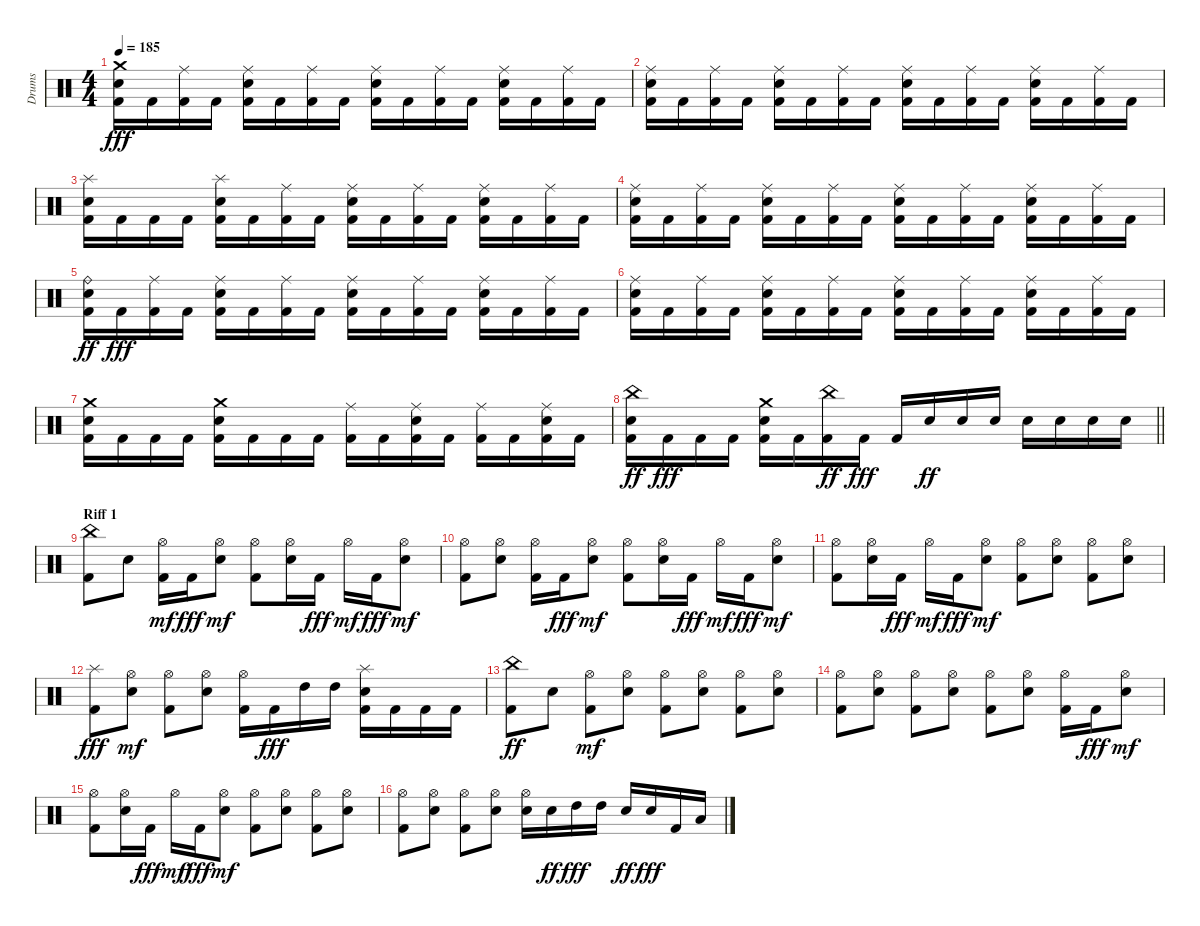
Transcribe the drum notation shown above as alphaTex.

\track ("Drums" "Drums") {instrument percussion}
\staff {score}
\articulation defaults
\ts (4 4)
\tempo 185
\clef neutral
\ks c
("Kick (hit) 2" "Snare (hit) 2" "Crash medium (hit)").16{dy fff} "Kick (hit) 2".16 ("Kick (hit) 2" "Ride (middle)").16 "Kick (hit) 2".16 ("Kick (hit) 2" "Snare (hit) 2" "Ride (middle)").16 "Kick (hit) 2".16 ("Kick (hit) 2" "Ride (middle)").16 "Kick (hit) 2".16 ("Kick (hit) 2" "Snare (hit) 2" "Ride (middle)").16 "Kick (hit) 2".16 ("Kick (hit) 2" "Ride (middle)").16 "Kick (hit) 2".16 ("Kick (hit) 2" "Snare (hit) 2" "Ride (middle)").16 "Kick (hit) 2".16 ("Kick (hit) 2" "Ride (middle)").16 "Kick (hit) 2".16 |
("Kick (hit) 2" "Snare (hit) 2" "Ride (middle)").16 "Kick (hit) 2".16 ("Kick (hit) 2" "Ride (middle)").16 "Kick (hit) 2".16 ("Kick (hit) 2" "Snare (hit) 2" "Ride (middle)").16 "Kick (hit) 2".16 ("Kick (hit) 2" "Ride (middle)").16 "Kick (hit) 2".16 ("Kick (hit) 2" "Snare (hit) 2" "Ride (middle)").16 "Kick (hit) 2".16 ("Kick (hit) 2" "Ride (middle)").16 "Kick (hit) 2".16 ("Kick (hit) 2" "Snare (hit) 2" "Ride (middle)").16 "Kick (hit) 2".16 ("Kick (hit) 2" "Ride (middle)").16 "Kick (hit) 2".16 |
("Kick (hit) 2" "Snare (hit) 2" "Splash (hit)").16 "Kick (hit) 2".16 "Kick (hit) 2".16 "Kick (hit) 2".16 ("Kick (hit) 2" "Snare (hit) 2" "Splash (hit)").16 "Kick (hit) 2".16 ("Kick (hit) 2" "Ride (middle)").16 "Kick (hit) 2".16 ("Kick (hit) 2" "Snare (hit) 2" "Ride (middle)").16 "Kick (hit) 2".16 ("Kick (hit) 2" "Ride (middle)").16 "Kick (hit) 2".16 ("Kick (hit) 2" "Snare (hit) 2" "Ride (middle)").16 "Kick (hit) 2".16 ("Kick (hit) 2" "Ride (middle)").16 "Kick (hit) 2".16 |
("Kick (hit) 2" "Snare (hit) 2" "Ride (middle)").16 "Kick (hit) 2".16 ("Kick (hit) 2" "Ride (middle)").16 "Kick (hit) 2".16 ("Kick (hit) 2" "Snare (hit) 2" "Ride (middle)").16 "Kick (hit) 2".16 ("Kick (hit) 2" "Ride (middle)").16 "Kick (hit) 2".16 ("Kick (hit) 2" "Snare (hit) 2" "Ride (middle)").16 "Kick (hit) 2".16 ("Kick (hit) 2" "Ride (middle)").16 "Kick (hit) 2".16 ("Kick (hit) 2" "Snare (hit) 2" "Ride (middle)").16 "Kick (hit) 2".16 ("Kick (hit) 2" "Ride (middle)").16 "Kick (hit) 2".16 |
("Kick (hit) 2" "Snare (hit) 2" "Ride (bell)").16{dy ff} "Kick (hit) 2".16{dy fff} ("Kick (hit) 2" "Ride (middle)").16 "Kick (hit) 2".16 ("Kick (hit) 2" "Snare (hit) 2" "Ride (middle)").16 "Kick (hit) 2".16 ("Kick (hit) 2" "Ride (middle)").16 "Kick (hit) 2".16 ("Kick (hit) 2" "Snare (hit) 2" "Ride (middle)").16 "Kick (hit) 2".16 ("Kick (hit) 2" "Ride (middle)").16 "Kick (hit) 2".16 ("Kick (hit) 2" "Snare (hit) 2" "Ride (middle)").16 "Kick (hit) 2".16 ("Kick (hit) 2" "Ride (middle)").16 "Kick (hit) 2".16 |
("Kick (hit) 2" "Snare (hit) 2" "Ride (middle)").16 "Kick (hit) 2".16 ("Kick (hit) 2" "Ride (middle)").16 "Kick (hit) 2".16 ("Kick (hit) 2" "Snare (hit) 2" "Ride (middle)").16 "Kick (hit) 2".16 ("Kick (hit) 2" "Ride (middle)").16 "Kick (hit) 2".16 ("Kick (hit) 2" "Snare (hit) 2" "Ride (middle)").16 "Kick (hit) 2".16 ("Kick (hit) 2" "Ride (middle)").16 "Kick (hit) 2".16 ("Kick (hit) 2" "Snare (hit) 2" "Ride (middle)").16 "Kick (hit) 2".16 ("Kick (hit) 2" "Ride (middle)").16 "Kick (hit) 2".16 |
("Kick (hit) 2" "Snare (hit) 2" "Crash medium (hit)").16 "Kick (hit) 2".16 "Kick (hit) 2".16 "Kick (hit) 2".16 ("Kick (hit) 2" "Snare (hit) 2" "Crash medium (hit)").16 "Kick (hit) 2".16 "Kick (hit) 2".16 "Kick (hit) 2".16 ("Kick (hit) 2" "Ride (middle)").16 "Kick (hit) 2".16 ("Kick (hit) 2" "Snare (hit) 2" "Ride (middle)").16 "Kick (hit) 2".16 ("Kick (hit) 2" "Ride (middle)").16 "Kick (hit) 2".16 ("Kick (hit) 2" "Snare (hit) 2" "Ride (middle)").16 "Kick (hit) 2".16 |
\barLineRight lightlight
("Kick (hit) 2" "Snare (hit) 2" "China (hit)").16{dy ff} "Kick (hit) 2".16{dy fff} "Kick (hit) 2".16 "Kick (hit) 2".16 ("Kick (hit) 2" "Snare (hit) 2" "Crash medium (hit)").16 "Kick (hit) 2".16 ("Kick (hit) 2" "China (hit)").16{dy ff} "Kick (hit) 2".16{dy fff} "Kick (hit) 2".16 "Snare (hit) 2".16{dy ff} "Snare (hit) 2".16 "Snare (hit) 2".16 "Snare (hit) 2".16 "Snare (hit) 2".16 "Snare (hit) 2".16 "Snare (hit) 2".16 |
\section ("" "Riff 1")
("Kick (hit) 2" "China (hit)").8 "Snare (hit) 2".8 ("Kick (hit) 2" "Hi-Hat (open)").16{dy mf} "Kick (hit) 2".16{dy fff} ("Snare (hit) 2" "Hi-Hat (open)").8{dy mf} ("Kick (hit) 2" "Hi-Hat (open)").8 ("Snare (hit) 2" "Hi-Hat (open)").16 "Kick (hit) 2".16{dy fff} "Hi-Hat (open)".16{dy mf} "Kick (hit) 2".16{dy fff} ("Snare (hit) 2" "Hi-Hat (open)").8{dy mf} |
("Kick (hit) 2" "Hi-Hat (open)").8 ("Snare (hit) 2" "Hi-Hat (open)").8 ("Kick (hit) 2" "Hi-Hat (open)").16 "Kick (hit) 2".16{dy fff} ("Snare (hit) 2" "Hi-Hat (open)").8{dy mf} ("Kick (hit) 2" "Hi-Hat (open)").8 ("Snare (hit) 2" "Hi-Hat (open)").16 "Kick (hit) 2".16{dy fff} "Hi-Hat (open)".16{dy mf} "Kick (hit) 2".16{dy fff} ("Snare (hit) 2" "Hi-Hat (open)").8{dy mf} |
("Kick (hit) 2" "Hi-Hat (open)").8 ("Snare (hit) 2" "Hi-Hat (open)").16 "Kick (hit) 2".16{dy fff} "Hi-Hat (open)".16{dy mf} "Kick (hit) 2".16{dy fff} ("Snare (hit) 2" "Hi-Hat (open)").8{dy mf} ("Kick (hit) 2" "Hi-Hat (open)").8 ("Snare (hit) 2" "Hi-Hat (open)").8 ("Kick (hit) 2" "Hi-Hat (open)").8 ("Snare (hit) 2" "Hi-Hat (open)").8 |
("Kick (hit) 2" "Splash (hit)").8{dy fff} ("Snare (hit) 2" "Hi-Hat (open)").8{dy mf} ("Kick (hit) 2" "Hi-Hat (open)").8 ("Snare (hit) 2" "Hi-Hat (open)").8 ("Kick (hit) 2" "Hi-Hat (open)").16 "Kick (hit) 2".16{dy fff} "High Tom (hit)".16 "High Tom (hit)".16 ("Kick (hit) 2" "Snare (hit) 2" "Splash (hit)").16 "Kick (hit) 2".16 "Kick (hit) 2".16 "Kick (hit) 2".16 |
("Kick (hit) 2" "China (hit)").8{dy ff} "Snare (hit) 2".8 ("Kick (hit) 2" "Hi-Hat (open)").8{dy mf} ("Snare (hit) 2" "Hi-Hat (open)").8 ("Kick (hit) 2" "Hi-Hat (open)").8 ("Snare (hit) 2" "Hi-Hat (open)").8 ("Kick (hit) 2" "Hi-Hat (open)").8 ("Snare (hit) 2" "Hi-Hat (open)").8 |
("Kick (hit) 2" "Hi-Hat (open)").8 ("Snare (hit) 2" "Hi-Hat (open)").8 ("Kick (hit) 2" "Hi-Hat (open)").8 ("Snare (hit) 2" "Hi-Hat (open)").8 ("Kick (hit) 2" "Hi-Hat (open)").8 ("Snare (hit) 2" "Hi-Hat (open)").8 ("Kick (hit) 2" "Hi-Hat (open)").16 "Kick (hit) 2".16{dy fff} ("Snare (hit) 2" "Hi-Hat (open)").8{dy mf} |
("Kick (hit) 2" "Hi-Hat (open)").8 ("Snare (hit) 2" "Hi-Hat (open)").16 "Kick (hit) 2".16{dy fff} "Hi-Hat (open)".16{dy mf} "Kick (hit) 2".16{dy fff} ("Snare (hit) 2" "Hi-Hat (open)").8{dy mf} ("Kick (hit) 2" "Hi-Hat (open)").8 ("Snare (hit) 2" "Hi-Hat (open)").8 ("Kick (hit) 2" "Hi-Hat (open)").8 ("Snare (hit) 2" "Hi-Hat (open)").8 |
("Kick (hit) 2" "Hi-Hat (open)").8 ("Snare (hit) 2" "Hi-Hat (open)").8 ("Kick (hit) 2" "Hi-Hat (open)").8 ("Snare (hit) 2" "Hi-Hat (open)").8 ("Snare (hit) 2" "Hi-Hat (open)").16 "Snare (hit) 2".16{dy ff} "High Tom (hit)".16{dy fff} "High Tom (hit)".16 "Snare (hit) 2".16{dy ff} "Snare (hit) 2".16{dy fff} "Kick (hit) 2".16 "Low Tom (hit)".16
